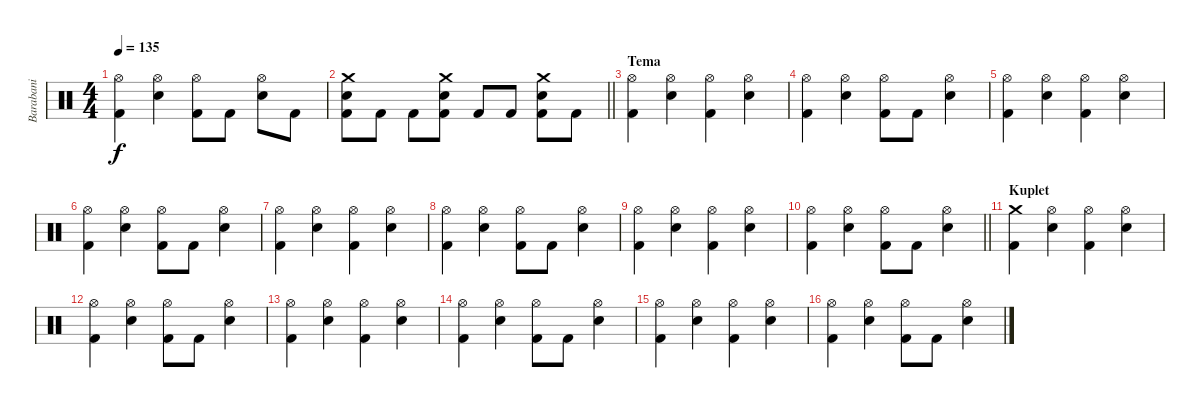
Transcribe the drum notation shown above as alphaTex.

\track ("Barabani" "Barabani") {instrument percussion}
\staff {score}
\articulation defaults
\ts (4 4)
\tempo 135
\clef neutral
\ks c
("Hi-Hat (open)" "Kick (hit) 2").4{dy f} ("Hi-Hat (open)" "Snare (hit) 2").4 ("Hi-Hat (open)" "Kick (hit) 2").8 "Kick (hit) 2".8 ("Hi-Hat (open)" "Snare (hit) 2").8 "Kick (hit) 2".8 |
\barLineRight lightlight
("Crash medium (hit)" "Snare (hit) 2" "Kick (hit) 2").8 "Kick (hit) 2".8 "Kick (hit) 2".8 ("Crash medium (hit)" "Snare (hit) 2" "Kick (hit) 2").8 "Kick (hit) 2".8 "Kick (hit) 2".8 ("Crash medium (hit)" "Snare (hit) 2" "Kick (hit) 2").8 "Kick (hit) 2".8 |
\section ("" "Tema")
("Hi-Hat (open)" "Kick (hit) 2").4 ("Hi-Hat (open)" "Snare (hit) 2").4 ("Hi-Hat (open)" "Kick (hit) 2").4 ("Hi-Hat (open)" "Snare (hit) 2").4 |
("Hi-Hat (open)" "Kick (hit) 2").4 ("Hi-Hat (open)" "Snare (hit) 2").4 ("Hi-Hat (open)" "Kick (hit) 2").8 "Kick (hit) 2".8 ("Hi-Hat (open)" "Snare (hit) 2").4 |
("Hi-Hat (open)" "Kick (hit) 2").4 ("Hi-Hat (open)" "Snare (hit) 2").4 ("Hi-Hat (open)" "Kick (hit) 2").4 ("Hi-Hat (open)" "Snare (hit) 2").4 |
("Hi-Hat (open)" "Kick (hit) 2").4 ("Hi-Hat (open)" "Snare (hit) 2").4 ("Hi-Hat (open)" "Kick (hit) 2").8 "Kick (hit) 2".8 ("Hi-Hat (open)" "Snare (hit) 2").4 |
("Hi-Hat (open)" "Kick (hit) 2").4 ("Hi-Hat (open)" "Snare (hit) 2").4 ("Hi-Hat (open)" "Kick (hit) 2").4 ("Hi-Hat (open)" "Snare (hit) 2").4 |
("Hi-Hat (open)" "Kick (hit) 2").4 ("Hi-Hat (open)" "Snare (hit) 2").4 ("Hi-Hat (open)" "Kick (hit) 2").8 "Kick (hit) 2".8 ("Hi-Hat (open)" "Snare (hit) 2").4 |
("Hi-Hat (open)" "Kick (hit) 2").4 ("Hi-Hat (open)" "Snare (hit) 2").4 ("Hi-Hat (open)" "Kick (hit) 2").4 ("Hi-Hat (open)" "Snare (hit) 2").4 |
\barLineRight lightlight
("Hi-Hat (open)" "Kick (hit) 2").4 ("Hi-Hat (open)" "Snare (hit) 2").4 ("Hi-Hat (open)" "Kick (hit) 2").8 "Kick (hit) 2".8 ("Hi-Hat (open)" "Snare (hit) 2").4 |
\section ("" "Kuplet")
("Crash medium (hit)" "Kick (hit) 2").4 ("Hi-Hat (open)" "Snare (hit) 2").4 ("Hi-Hat (open)" "Kick (hit) 2").4 ("Hi-Hat (open)" "Snare (hit) 2").4 |
("Hi-Hat (open)" "Kick (hit) 2").4 ("Hi-Hat (open)" "Snare (hit) 2").4 ("Hi-Hat (open)" "Kick (hit) 2").8 "Kick (hit) 2".8 ("Hi-Hat (open)" "Snare (hit) 2").4 |
("Hi-Hat (open)" "Kick (hit) 2").4 ("Hi-Hat (open)" "Snare (hit) 2").4 ("Hi-Hat (open)" "Kick (hit) 2").4 ("Hi-Hat (open)" "Snare (hit) 2").4 |
("Hi-Hat (open)" "Kick (hit) 2").4 ("Hi-Hat (open)" "Snare (hit) 2").4 ("Hi-Hat (open)" "Kick (hit) 2").8 "Kick (hit) 2".8 ("Hi-Hat (open)" "Snare (hit) 2").4 |
("Hi-Hat (open)" "Kick (hit) 2").4 ("Hi-Hat (open)" "Snare (hit) 2").4 ("Hi-Hat (open)" "Kick (hit) 2").4 ("Hi-Hat (open)" "Snare (hit) 2").4 |
("Hi-Hat (open)" "Kick (hit) 2").4 ("Hi-Hat (open)" "Snare (hit) 2").4 ("Hi-Hat (open)" "Kick (hit) 2").8 "Kick (hit) 2".8 ("Hi-Hat (open)" "Snare (hit) 2").4
